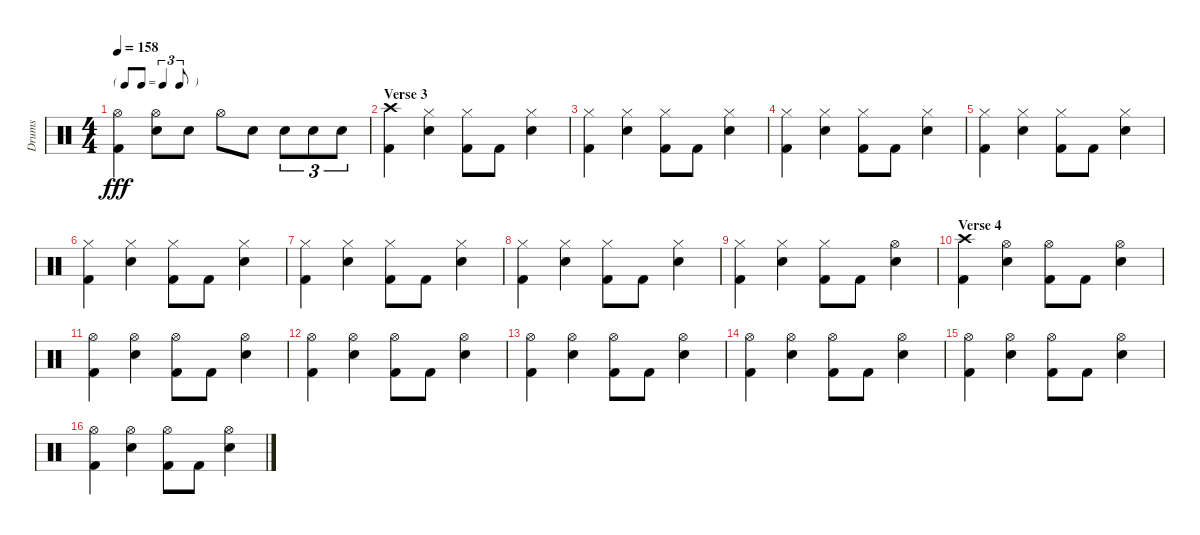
\track ("Drums" "Drums") {instrument percussion}
\staff {score}
\articulation defaults
\ts (4 4)
\tf triplet8th
\tempo 158
\clef neutral
\ks c
("Hi-Hat (open)" "Kick (hit) 2").4{dy fff} ("Hi-Hat (open)" "Snare (hit) 2").8 "Snare (hit) 2".8 "Hi-Hat (open)".8 "Snare (hit) 2".8 "Snare (hit) 2".8{tu (3 2)} "Snare (hit) 2".8{tu (3 2)} "Snare (hit) 2".8{tu (3 2)} |
\section ("" "Verse 3")
("Crash high (hit)" "Kick (hit) 2").4 ("Hi-Hat (closed)" "Snare (hit) 2").4 ("Hi-Hat (closed)" "Kick (hit) 2").8 "Kick (hit) 2".8 ("Hi-Hat (closed)" "Snare (hit) 2").4 |
("Hi-Hat (closed)" "Kick (hit) 2").4 ("Hi-Hat (closed)" "Snare (hit) 2").4 ("Hi-Hat (closed)" "Kick (hit) 2").8 "Kick (hit) 2".8 ("Hi-Hat (closed)" "Snare (hit) 2").4 |
("Hi-Hat (closed)" "Kick (hit) 2").4 ("Hi-Hat (closed)" "Snare (hit) 2").4 ("Hi-Hat (closed)" "Kick (hit) 2").8 "Kick (hit) 2".8 ("Hi-Hat (closed)" "Snare (hit) 2").4 |
("Hi-Hat (closed)" "Kick (hit) 2").4 ("Hi-Hat (closed)" "Snare (hit) 2").4 ("Hi-Hat (closed)" "Kick (hit) 2").8 "Kick (hit) 2".8 ("Hi-Hat (closed)" "Snare (hit) 2").4 |
("Hi-Hat (closed)" "Kick (hit) 2").4 ("Hi-Hat (closed)" "Snare (hit) 2").4 ("Hi-Hat (closed)" "Kick (hit) 2").8 "Kick (hit) 2".8 ("Hi-Hat (closed)" "Snare (hit) 2").4 |
("Hi-Hat (closed)" "Kick (hit) 2").4 ("Hi-Hat (closed)" "Snare (hit) 2").4 ("Hi-Hat (closed)" "Kick (hit) 2").8 "Kick (hit) 2".8 ("Hi-Hat (closed)" "Snare (hit) 2").4 |
("Hi-Hat (closed)" "Kick (hit) 2").4 ("Hi-Hat (closed)" "Snare (hit) 2").4 ("Hi-Hat (closed)" "Kick (hit) 2").8 "Kick (hit) 2".8 ("Hi-Hat (closed)" "Snare (hit) 2").4 |
("Hi-Hat (closed)" "Kick (hit) 2").4 ("Hi-Hat (closed)" "Snare (hit) 2").4 ("Hi-Hat (closed)" "Kick (hit) 2").8 "Kick (hit) 2".8 ("Hi-Hat (open)" "Snare (hit) 2").4 |
\section ("" "Verse 4")
("Crash high (hit)" "Kick (hit) 2").4 ("Hi-Hat (open)" "Snare (hit) 2").4 ("Hi-Hat (open)" "Kick (hit) 2").8 "Kick (hit) 2".8 ("Hi-Hat (open)" "Snare (hit) 2").4 |
("Hi-Hat (open)" "Kick (hit) 2").4 ("Hi-Hat (open)" "Snare (hit) 2").4 ("Hi-Hat (open)" "Kick (hit) 2").8 "Kick (hit) 2".8 ("Hi-Hat (open)" "Snare (hit) 2").4 |
("Hi-Hat (open)" "Kick (hit) 2").4 ("Hi-Hat (open)" "Snare (hit) 2").4 ("Hi-Hat (open)" "Kick (hit) 2").8 "Kick (hit) 2".8 ("Hi-Hat (open)" "Snare (hit) 2").4 |
("Hi-Hat (open)" "Kick (hit) 2").4 ("Hi-Hat (open)" "Snare (hit) 2").4 ("Hi-Hat (open)" "Kick (hit) 2").8 "Kick (hit) 2".8 ("Hi-Hat (open)" "Snare (hit) 2").4 |
("Hi-Hat (open)" "Kick (hit) 2").4 ("Hi-Hat (open)" "Snare (hit) 2").4 ("Hi-Hat (open)" "Kick (hit) 2").8 "Kick (hit) 2".8 ("Hi-Hat (open)" "Snare (hit) 2").4 |
("Hi-Hat (open)" "Kick (hit) 2").4 ("Hi-Hat (open)" "Snare (hit) 2").4 ("Hi-Hat (open)" "Kick (hit) 2").8 "Kick (hit) 2".8 ("Hi-Hat (open)" "Snare (hit) 2").4 |
("Hi-Hat (open)" "Kick (hit) 2").4 ("Hi-Hat (open)" "Snare (hit) 2").4 ("Hi-Hat (open)" "Kick (hit) 2").8 "Kick (hit) 2".8 ("Hi-Hat (open)" "Snare (hit) 2").4
